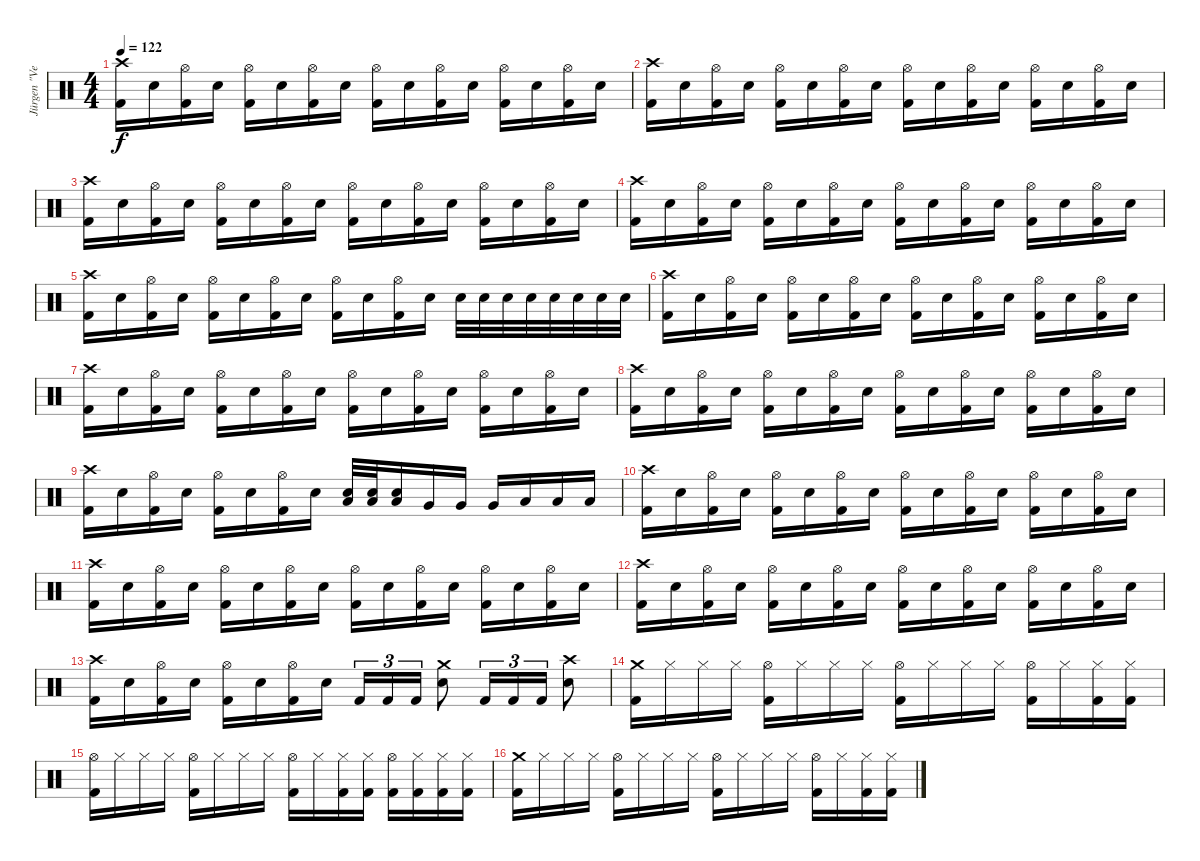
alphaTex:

\track ("Jürgen \"Ventor\" Reil Drums" "Jürgen \"Ve") {instrument percussion}
\staff {score}
\articulation defaults
\ts (4 4)
\tempo 122
\clef neutral
\ks c
("Crash high (hit)" "Kick (hit) 2").16{dy f} "Snare (hit) 2".16 ("Hi-Hat (open)" "Kick (hit) 2").16 "Snare (hit) 2".16 ("Hi-Hat (open)" "Kick (hit) 2").16 "Snare (hit) 2".16 ("Hi-Hat (open)" "Kick (hit) 2").16 "Snare (hit) 2".16 ("Hi-Hat (open)" "Kick (hit) 2").16 "Snare (hit) 2".16 ("Hi-Hat (open)" "Kick (hit) 2").16 "Snare (hit) 2".16 ("Hi-Hat (open)" "Kick (hit) 2").16 "Snare (hit) 2".16 ("Hi-Hat (open)" "Kick (hit) 2").16 "Snare (hit) 2".16 |
("Crash high (hit)" "Kick (hit) 2").16 "Snare (hit) 2".16 ("Hi-Hat (open)" "Kick (hit) 2").16 "Snare (hit) 2".16 ("Hi-Hat (open)" "Kick (hit) 2").16 "Snare (hit) 2".16 ("Hi-Hat (open)" "Kick (hit) 2").16 "Snare (hit) 2".16 ("Hi-Hat (open)" "Kick (hit) 2").16 "Snare (hit) 2".16 ("Hi-Hat (open)" "Kick (hit) 2").16 "Snare (hit) 2".16 ("Hi-Hat (open)" "Kick (hit) 2").16 "Snare (hit) 2".16 ("Hi-Hat (open)" "Kick (hit) 2").16 "Snare (hit) 2".16 |
("Crash high (hit)" "Kick (hit) 2").16 "Snare (hit) 2".16 ("Hi-Hat (open)" "Kick (hit) 2").16 "Snare (hit) 2".16 ("Hi-Hat (open)" "Kick (hit) 2").16 "Snare (hit) 2".16 ("Hi-Hat (open)" "Kick (hit) 2").16 "Snare (hit) 2".16 ("Hi-Hat (open)" "Kick (hit) 2").16 "Snare (hit) 2".16 ("Hi-Hat (open)" "Kick (hit) 2").16 "Snare (hit) 2".16 ("Hi-Hat (open)" "Kick (hit) 2").16 "Snare (hit) 2".16 ("Hi-Hat (open)" "Kick (hit) 2").16 "Snare (hit) 2".16 |
("Crash high (hit)" "Kick (hit) 2").16 "Snare (hit) 2".16 ("Hi-Hat (open)" "Kick (hit) 2").16 "Snare (hit) 2".16 ("Hi-Hat (open)" "Kick (hit) 2").16 "Snare (hit) 2".16 ("Hi-Hat (open)" "Kick (hit) 2").16 "Snare (hit) 2".16 ("Hi-Hat (open)" "Kick (hit) 2").16 "Snare (hit) 2".16 ("Hi-Hat (open)" "Kick (hit) 2").16 "Snare (hit) 2".16 ("Hi-Hat (open)" "Kick (hit) 2").16 "Snare (hit) 2".16 ("Hi-Hat (open)" "Kick (hit) 2").16 "Snare (hit) 2".16 |
("Crash high (hit)" "Kick (hit) 2").16 "Snare (hit) 2".16 ("Hi-Hat (open)" "Kick (hit) 2").16 "Snare (hit) 2".16 ("Hi-Hat (open)" "Kick (hit) 2").16 "Snare (hit) 2".16 ("Hi-Hat (open)" "Kick (hit) 2").16 "Snare (hit) 2".16 ("Hi-Hat (open)" "Kick (hit) 2").16 "Snare (hit) 2".16 ("Hi-Hat (open)" "Kick (hit) 2").16 "Snare (hit) 2".16 "Snare (hit) 2".32 "Snare (hit) 2".32 "Snare (hit) 2".32 "Snare (hit) 2".32 "Snare (hit) 2".32 "Snare (hit) 2".32 "Snare (hit) 2".32 "Snare (hit) 2".32 |
("Crash high (hit)" "Kick (hit) 2").16 "Snare (hit) 2".16 ("Hi-Hat (open)" "Kick (hit) 2").16 "Snare (hit) 2".16 ("Hi-Hat (open)" "Kick (hit) 2").16 "Snare (hit) 2".16 ("Hi-Hat (open)" "Kick (hit) 2").16 "Snare (hit) 2".16 ("Hi-Hat (open)" "Kick (hit) 2").16 "Snare (hit) 2".16 ("Hi-Hat (open)" "Kick (hit) 2").16 "Snare (hit) 2".16 ("Hi-Hat (open)" "Kick (hit) 2").16 "Snare (hit) 2".16 ("Hi-Hat (open)" "Kick (hit) 2").16 "Snare (hit) 2".16 |
("Crash high (hit)" "Kick (hit) 2").16 "Snare (hit) 2".16 ("Hi-Hat (open)" "Kick (hit) 2").16 "Snare (hit) 2".16 ("Hi-Hat (open)" "Kick (hit) 2").16 "Snare (hit) 2".16 ("Hi-Hat (open)" "Kick (hit) 2").16 "Snare (hit) 2".16 ("Hi-Hat (open)" "Kick (hit) 2").16 "Snare (hit) 2".16 ("Hi-Hat (open)" "Kick (hit) 2").16 "Snare (hit) 2".16 ("Hi-Hat (open)" "Kick (hit) 2").16 "Snare (hit) 2".16 ("Hi-Hat (open)" "Kick (hit) 2").16 "Snare (hit) 2".16 |
("Crash high (hit)" "Kick (hit) 2").16 "Snare (hit) 2".16 ("Hi-Hat (open)" "Kick (hit) 2").16 "Snare (hit) 2".16 ("Hi-Hat (open)" "Kick (hit) 2").16 "Snare (hit) 2".16 ("Hi-Hat (open)" "Kick (hit) 2").16 "Snare (hit) 2".16 ("Hi-Hat (open)" "Kick (hit) 2").16 "Snare (hit) 2".16 ("Hi-Hat (open)" "Kick (hit) 2").16 "Snare (hit) 2".16 ("Hi-Hat (open)" "Kick (hit) 2").16 "Snare (hit) 2".16 ("Hi-Hat (open)" "Kick (hit) 2").16 "Snare (hit) 2".16 |
("Crash high (hit)" "Kick (hit) 2").16 "Snare (hit) 2".16 ("Hi-Hat (open)" "Kick (hit) 2").16 "Snare (hit) 2".16 ("Hi-Hat (open)" "Kick (hit) 2").16 "Snare (hit) 2".16 ("Hi-Hat (open)" "Kick (hit) 2").16 "Snare (hit) 2".16 ("Low Tom (hit)" "Snare (hit) 2").32 ("Low Tom (hit)" "Snare (hit) 2").32 ("Low Tom (hit)" "Snare (hit) 2").16 "Very Low Tom (hit)".16 "Very Low Tom (hit)".16 "Very Low Tom (hit)".16 "Low Floor Tom (hit)".16 "Low Floor Tom (hit)".16 "Low Floor Tom (hit)".16 |
("Crash high (hit)" "Kick (hit) 2").16 "Snare (hit) 2".16 ("Hi-Hat (open)" "Kick (hit) 2").16 "Snare (hit) 2".16 ("Hi-Hat (open)" "Kick (hit) 2").16 "Snare (hit) 2".16 ("Hi-Hat (open)" "Kick (hit) 2").16 "Snare (hit) 2".16 ("Hi-Hat (open)" "Kick (hit) 2").16 "Snare (hit) 2".16 ("Hi-Hat (open)" "Kick (hit) 2").16 "Snare (hit) 2".16 ("Hi-Hat (open)" "Kick (hit) 2").16 "Snare (hit) 2".16 ("Hi-Hat (open)" "Kick (hit) 2").16 "Snare (hit) 2".16 |
("Crash high (hit)" "Kick (hit) 2").16 "Snare (hit) 2".16 ("Hi-Hat (open)" "Kick (hit) 2").16 "Snare (hit) 2".16 ("Hi-Hat (open)" "Kick (hit) 2").16 "Snare (hit) 2".16 ("Hi-Hat (open)" "Kick (hit) 2").16 "Snare (hit) 2".16 ("Hi-Hat (open)" "Kick (hit) 2").16 "Snare (hit) 2".16 ("Hi-Hat (open)" "Kick (hit) 2").16 "Snare (hit) 2".16 ("Hi-Hat (open)" "Kick (hit) 2").16 "Snare (hit) 2".16 ("Hi-Hat (open)" "Kick (hit) 2").16 "Snare (hit) 2".16 |
("Crash high (hit)" "Kick (hit) 2").16 "Snare (hit) 2".16 ("Hi-Hat (open)" "Kick (hit) 2").16 "Snare (hit) 2".16 ("Hi-Hat (open)" "Kick (hit) 2").16 "Snare (hit) 2".16 ("Hi-Hat (open)" "Kick (hit) 2").16 "Snare (hit) 2".16 ("Hi-Hat (open)" "Kick (hit) 2").16 "Snare (hit) 2".16 ("Hi-Hat (open)" "Kick (hit) 2").16 "Snare (hit) 2".16 ("Hi-Hat (open)" "Kick (hit) 2").16 "Snare (hit) 2".16 ("Hi-Hat (open)" "Kick (hit) 2").16 "Snare (hit) 2".16 |
("Crash high (hit)" "Kick (hit) 2").16 "Snare (hit) 2".16 ("Hi-Hat (open)" "Kick (hit) 2").16 "Snare (hit) 2".16 ("Hi-Hat (open)" "Kick (hit) 2").16 "Snare (hit) 2".16 ("Hi-Hat (open)" "Kick (hit) 2").16 "Snare (hit) 2".16 "Kick (hit) 2".16{tu (3 2)} "Kick (hit) 2".16{tu (3 2)} "Kick (hit) 2".16{tu (3 2)} ("Crash medium (hit)" "Snare (hit) 2").8 "Kick (hit) 2".16{tu (3 2)} "Kick (hit) 2".16{tu (3 2)} "Kick (hit) 2".16{tu (3 2)} ("Crash high (hit)" "Snare (hit) 2").8 |
("Crash medium (hit)" "Kick (hit) 2").16 "Hi-Hat (closed)".16 "Hi-Hat (closed)".16 "Hi-Hat (closed)".16 ("Hi-Hat (open)" "Kick (hit) 2").16 "Hi-Hat (closed)".16 "Hi-Hat (closed)".16 "Hi-Hat (closed)".16 ("Hi-Hat (open)" "Kick (hit) 2").16 "Hi-Hat (closed)".16 "Hi-Hat (closed)".16 "Hi-Hat (closed)".16 ("Hi-Hat (open)" "Kick (hit) 2").16 "Hi-Hat (closed)".16 ("Hi-Hat (closed)" "Kick (hit) 2").16 ("Hi-Hat (closed)" "Kick (hit) 2").16 |
("Hi-Hat (open)" "Kick (hit) 2").16 "Hi-Hat (closed)".16 "Hi-Hat (closed)".16 "Hi-Hat (closed)".16 ("Hi-Hat (open)" "Kick (hit) 2").16 "Hi-Hat (closed)".16 "Hi-Hat (closed)".16 "Hi-Hat (closed)".16 ("Hi-Hat (open)" "Kick (hit) 2").16 "Hi-Hat (closed)".16 ("Hi-Hat (closed)" "Kick (hit) 2").16 ("Hi-Hat (closed)" "Kick (hit) 2").16 ("Hi-Hat (open)" "Kick (hit) 2").16 ("Hi-Hat (closed)" "Kick (hit) 2").16 ("Hi-Hat (closed)" "Kick (hit) 2").16 ("Hi-Hat (closed)" "Kick (hit) 2").16 |
("Crash medium (hit)" "Kick (hit) 2").16 "Hi-Hat (closed)".16 "Hi-Hat (closed)".16 "Hi-Hat (closed)".16 ("Hi-Hat (open)" "Kick (hit) 2").16 "Hi-Hat (closed)".16 "Hi-Hat (closed)".16 "Hi-Hat (closed)".16 ("Hi-Hat (open)" "Kick (hit) 2").16 "Hi-Hat (closed)".16 "Hi-Hat (closed)".16 "Hi-Hat (closed)".16 ("Hi-Hat (open)" "Kick (hit) 2").16 "Hi-Hat (closed)".16 ("Hi-Hat (closed)" "Kick (hit) 2").16 ("Hi-Hat (closed)" "Kick (hit) 2").16
